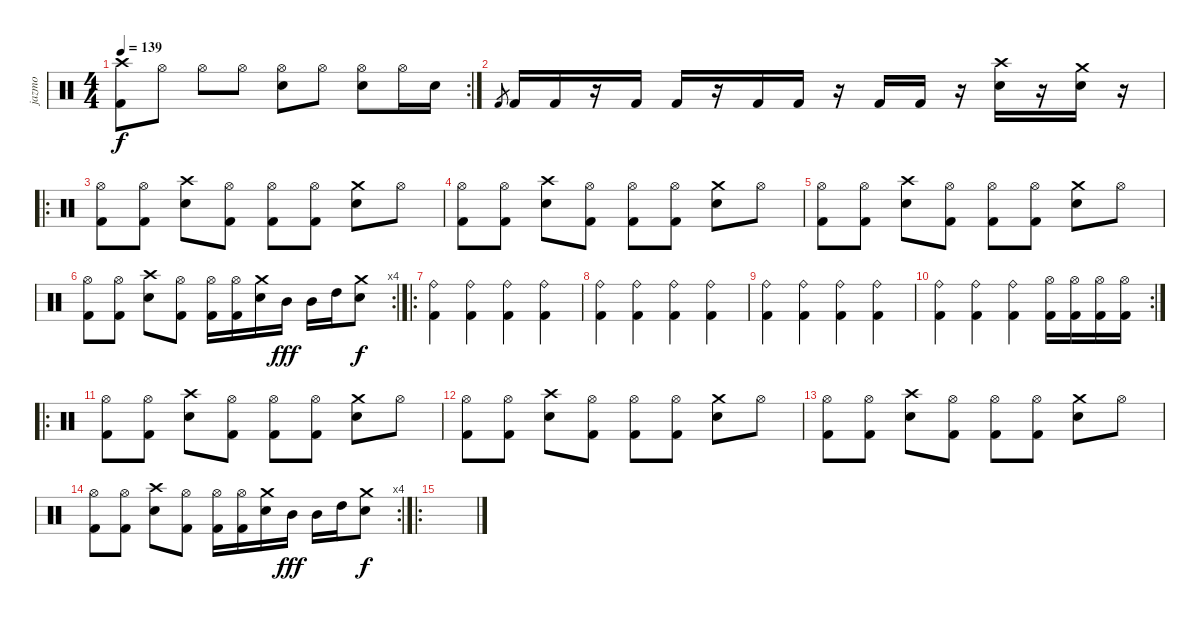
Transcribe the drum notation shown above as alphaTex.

\track ("jazmo" "jazmo") {instrument percussion}
\staff {score}
\articulation defaults
\rc 2
\ts (4 4)
\tempo 139
\clef neutral
\ks c
("Crash high (hit)" "Kick (hit) 2").8{dy f} "Hi-Hat (open)".8 "Hi-Hat (open)".8 "Hi-Hat (open)".8 ("Hi-Hat (open)" "Snare (hit) 2").8 "Hi-Hat (open)".8 ("Hi-Hat (open)" "Snare (hit) 2").8 "Hi-Hat (open)".16 "Snare (hit) 2".16 |
"Kick (hit) 2".8{gr} "Kick (hit) 2".16 "Kick (hit) 2".16 r.16 "Kick (hit) 2".16 "Kick (hit) 2".16 r.16 "Kick (hit) 2".16 "Kick (hit) 2".16 r.16 "Kick (hit) 2".16 "Kick (hit) 2".16 r.16 ("Crash high (hit)" "Snare (hit) 2").16 r.16 ("Crash medium (hit)" "Snare (hit) 2").16 r.16 |
\ro
("Hi-Hat (open)" "Kick (hit) 2").8 ("Hi-Hat (open)" "Kick (hit) 2").8 ("Crash high (hit)" "Snare (hit) 2").8 ("Hi-Hat (open)" "Kick (hit) 2").8 ("Hi-Hat (open)" "Kick (hit) 2").8 ("Hi-Hat (open)" "Kick (hit) 2").8 ("Crash medium (hit)" "Snare (hit) 2").8 "Hi-Hat (open)".8 |
("Hi-Hat (open)" "Kick (hit) 2").8 ("Hi-Hat (open)" "Kick (hit) 2").8 ("Crash high (hit)" "Snare (hit) 2").8 ("Hi-Hat (open)" "Kick (hit) 2").8 ("Hi-Hat (open)" "Kick (hit) 2").8 ("Hi-Hat (open)" "Kick (hit) 2").8 ("Crash medium (hit)" "Snare (hit) 2").8 "Hi-Hat (open)".8 |
("Hi-Hat (open)" "Kick (hit) 2").8 ("Hi-Hat (open)" "Kick (hit) 2").8 ("Crash high (hit)" "Snare (hit) 2").8 ("Hi-Hat (open)" "Kick (hit) 2").8 ("Hi-Hat (open)" "Kick (hit) 2").8 ("Hi-Hat (open)" "Kick (hit) 2").8 ("Crash medium (hit)" "Snare (hit) 2").8 "Hi-Hat (open)".8 |
\rc 4
("Hi-Hat (open)" "Kick (hit) 2").8 ("Hi-Hat (open)" "Kick (hit) 2").8 ("Crash high (hit)" "Snare (hit) 2").8 ("Hi-Hat (open)" "Kick (hit) 2").8 ("Hi-Hat (open)" "Kick (hit) 2").16 ("Hi-Hat (open)" "Kick (hit) 2").16 ("Crash medium (hit)" "Snare (hit) 2").16 "Mid Tom (hit)".16{dy fff} "Mid Tom (hit)".16 "High Tom (hit)".16 ("Crash medium (hit)" "Snare (hit) 2").8{dy f} |
\ro
("Ride (bell)" "Kick (hit) 2").4 ("Ride (bell)" "Kick (hit) 2").4 ("Ride (bell)" "Kick (hit) 2").4 ("Ride (bell)" "Kick (hit) 2").4 |
("Ride (bell)" "Kick (hit) 2").4 ("Ride (bell)" "Kick (hit) 2").4 ("Ride (bell)" "Kick (hit) 2").4 ("Ride (bell)" "Kick (hit) 2").4 |
("Ride (bell)" "Kick (hit) 2").4 ("Ride (bell)" "Kick (hit) 2").4 ("Ride (bell)" "Kick (hit) 2").4 ("Ride (bell)" "Kick (hit) 2").4 |
\rc 2
("Ride (bell)" "Kick (hit) 2").4 ("Ride (bell)" "Kick (hit) 2").4 ("Ride (bell)" "Kick (hit) 2").4 ("Hi-Hat (open)" "Kick (hit) 2").16 ("Hi-Hat (open)" "Kick (hit) 2").16 ("Hi-Hat (open)" "Kick (hit) 2").16 ("Hi-Hat (open)" "Kick (hit) 2").16 |
\ro
("Hi-Hat (open)" "Kick (hit) 2").8 ("Hi-Hat (open)" "Kick (hit) 2").8 ("Crash high (hit)" "Snare (hit) 2").8 ("Hi-Hat (open)" "Kick (hit) 2").8 ("Hi-Hat (open)" "Kick (hit) 2").8 ("Hi-Hat (open)" "Kick (hit) 2").8 ("Crash medium (hit)" "Snare (hit) 2").8 "Hi-Hat (open)".8 |
("Hi-Hat (open)" "Kick (hit) 2").8 ("Hi-Hat (open)" "Kick (hit) 2").8 ("Crash high (hit)" "Snare (hit) 2").8 ("Hi-Hat (open)" "Kick (hit) 2").8 ("Hi-Hat (open)" "Kick (hit) 2").8 ("Hi-Hat (open)" "Kick (hit) 2").8 ("Crash medium (hit)" "Snare (hit) 2").8 "Hi-Hat (open)".8 |
("Hi-Hat (open)" "Kick (hit) 2").8 ("Hi-Hat (open)" "Kick (hit) 2").8 ("Crash high (hit)" "Snare (hit) 2").8 ("Hi-Hat (open)" "Kick (hit) 2").8 ("Hi-Hat (open)" "Kick (hit) 2").8 ("Hi-Hat (open)" "Kick (hit) 2").8 ("Crash medium (hit)" "Snare (hit) 2").8 "Hi-Hat (open)".8 |
\rc 4
("Hi-Hat (open)" "Kick (hit) 2").8 ("Hi-Hat (open)" "Kick (hit) 2").8 ("Crash high (hit)" "Snare (hit) 2").8 ("Hi-Hat (open)" "Kick (hit) 2").8 ("Hi-Hat (open)" "Kick (hit) 2").16 ("Hi-Hat (open)" "Kick (hit) 2").16 ("Crash medium (hit)" "Snare (hit) 2").16 "Mid Tom (hit)".16{dy fff} "Mid Tom (hit)".16 "High Tom (hit)".16 ("Crash medium (hit)" "Snare (hit) 2").8{dy f} |
\ro
